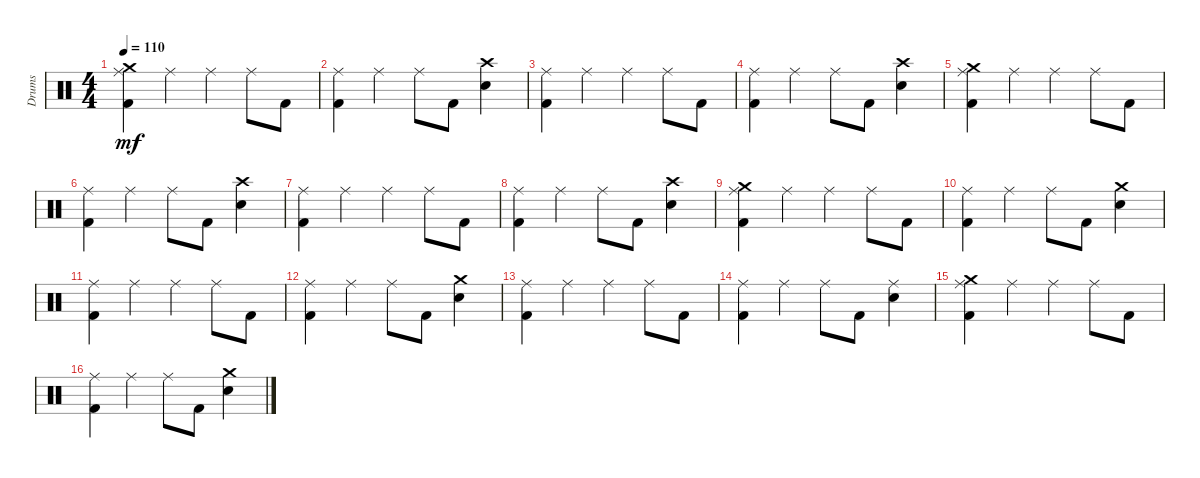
\track ("Drums" "Drums") {instrument percussion}
\staff {score}
\articulation defaults
\ts (4 4)
\tempo 110
\clef neutral
\ks c
("Crash medium (hit)" "Ride (middle)" "Kick (hit) 2").4{dy mf} "Ride (middle)".4 "Ride (middle)".4 "Ride (middle)".8 "Kick (hit) 2".8 |
("Ride (middle)" "Kick (hit) 2").4 "Ride (middle)".4 "Ride (middle)".8 "Kick (hit) 2".8 ("Crash high (hit)" "Electric Snare (hit)").4 |
("Ride (middle)" "Kick (hit) 2").4 "Ride (middle)".4 "Ride (middle)".4 "Ride (middle)".8 "Kick (hit) 2".8 |
("Ride (middle)" "Kick (hit) 2").4 "Ride (middle)".4 "Ride (middle)".8 "Kick (hit) 2".8 ("Crash high (hit)" "Electric Snare (hit)").4 |
("Crash medium (hit)" "Ride (middle)" "Kick (hit) 2").4 "Ride (middle)".4 "Ride (middle)".4 "Ride (middle)".8 "Kick (hit) 2".8 |
("Ride (middle)" "Kick (hit) 2").4 "Ride (middle)".4 "Ride (middle)".8 "Kick (hit) 2".8 ("Crash high (hit)" "Electric Snare (hit)").4 |
("Ride (middle)" "Kick (hit) 2").4 "Ride (middle)".4 "Ride (middle)".4 "Ride (middle)".8 "Kick (hit) 2".8 |
("Ride (middle)" "Kick (hit) 2").4 "Ride (middle)".4 "Ride (middle)".8 "Kick (hit) 2".8 ("Crash high (hit)" "Electric Snare (hit)").4 |
("Crash medium (hit)" "Ride (middle)" "Kick (hit) 2").4 "Ride (middle)".4 "Ride (middle)".4 "Ride (middle)".8 "Kick (hit) 2".8 |
("Ride (middle)" "Kick (hit) 2").4 "Ride (middle)".4 "Ride (middle)".8 "Kick (hit) 2".8 ("Crash medium (hit)" "Electric Snare (hit)").4 |
("Ride (middle)" "Kick (hit) 2").4 "Ride (middle)".4 "Ride (middle)".4 "Ride (middle)".8 "Kick (hit) 2".8 |
("Ride (middle)" "Kick (hit) 2").4 "Ride (middle)".4 "Ride (middle)".8 "Kick (hit) 2".8 ("Crash medium (hit)" "Electric Snare (hit)").4 |
("Ride (middle)" "Kick (hit) 2").4 "Ride (middle)".4 "Ride (middle)".4 "Ride (middle)".8 "Kick (hit) 2".8 |
("Ride (middle)" "Kick (hit) 2").4 "Ride (middle)".4 "Ride (middle)".8 "Kick (hit) 2".8 ("Ride (middle)" "Electric Snare (hit)").4 |
("Crash medium (hit)" "Ride (middle)" "Kick (hit) 2").4 "Ride (middle)".4 "Ride (middle)".4 "Ride (middle)".8 "Kick (hit) 2".8 |
("Ride (middle)" "Kick (hit) 2").4 "Ride (middle)".4 "Ride (middle)".8 "Kick (hit) 2".8 ("Crash medium (hit)" "Electric Snare (hit)").4
